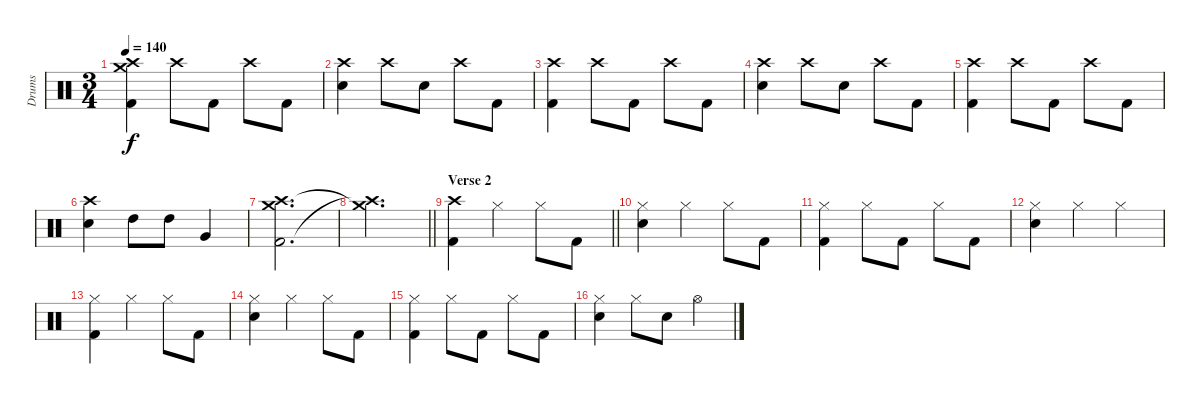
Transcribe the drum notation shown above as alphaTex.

\track ("Drums" "Drums") {instrument percussion}
\staff {score}
\articulation defaults
\ts (3 4)
\tempo 140
\clef neutral
\ks c
("Kick (hit) 2" "Crash high (hit)" "Crash medium (hit)").4{dy f} "Crash high (hit)".8 "Kick (hit) 2".8 "Crash high (hit)".8 "Kick (hit) 2".8 |
("Electric Snare (hit)" "Crash high (hit)").4 "Crash high (hit)".8 "Electric Snare (hit)".8 "Crash high (hit)".8 "Kick (hit) 2".8 |
("Kick (hit) 2" "Crash high (hit)").4 "Crash high (hit)".8 "Kick (hit) 2".8 "Crash high (hit)".8 "Kick (hit) 2".8 |
("Electric Snare (hit)" "Crash high (hit)").4 "Crash high (hit)".8 "Electric Snare (hit)".8 "Crash high (hit)".8 "Kick (hit) 2".8 |
("Kick (hit) 2" "Crash high (hit)").4 "Crash high (hit)".8 "Kick (hit) 2".8 "Crash high (hit)".8 "Kick (hit) 2".8 |
("Electric Snare (hit)" "Crash high (hit)").4 "High Tom (hit)".8 "High Tom (hit)".8 "Very Low Tom (hit)".4 |
("Kick (hit) 2" "Crash high (hit)" "Crash medium (hit)").2{d} |
\barLineRight lightlight
("Crash high (hit)"{t} "Crash medium (hit)"{t}).2{d} |
\section ("" "Verse 2")
\barLineRight lightlight
("Kick (hit) 2" "Crash high (hit)").4 "Hi-Hat (closed)".4 "Hi-Hat (closed)".8 "Kick (hit) 2".8 |
("Electric Snare (hit)" "Hi-Hat (closed)").4 "Hi-Hat (closed)".4 "Hi-Hat (closed)".8 "Kick (hit) 2".8 |
("Kick (hit) 2" "Hi-Hat (closed)").4 "Hi-Hat (closed)".8 "Kick (hit) 2".8 "Hi-Hat (closed)".8 "Kick (hit) 2".8 |
("Electric Snare (hit)" "Hi-Hat (closed)").4 "Hi-Hat (closed)".4 "Hi-Hat (closed)".4 |
("Kick (hit) 2" "Hi-Hat (closed)").4 "Hi-Hat (closed)".4 "Hi-Hat (closed)".8 "Kick (hit) 2".8 |
("Electric Snare (hit)" "Hi-Hat (closed)").4 "Hi-Hat (closed)".4 "Hi-Hat (closed)".8 "Kick (hit) 2".8 |
("Kick (hit) 2" "Hi-Hat (closed)").4 "Hi-Hat (closed)".8 "Kick (hit) 2".8 "Hi-Hat (closed)".8 "Kick (hit) 2".8 |
("Electric Snare (hit)" "Hi-Hat (closed)").4 "Hi-Hat (closed)".8 "Electric Snare (hit)".8 "Hi-Hat (open)".4
